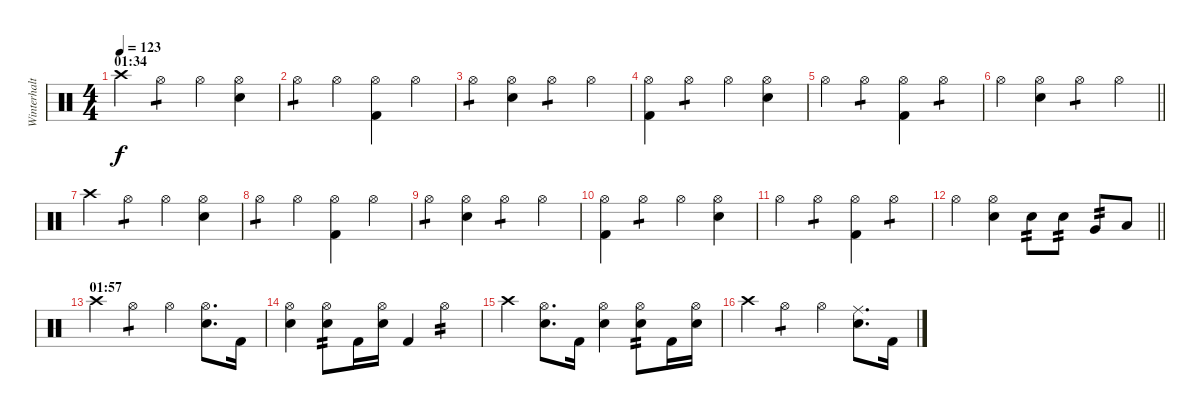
\track ("Winterhalten" "Winterhalt") {instrument percussion}
\staff {score}
\articulation defaults
\ts (4 4)
\section ("" "01:34")
\tempo 123
\clef neutral
\ks c "Crash high (hit)".4{dy f} "Hi-Hat (open)".4{tp 1} "Hi-Hat (open)".4
("Hi-Hat (open)" "Snare (hit) 2").4 |
"Hi-Hat (open)".4{tp 1} "Hi-Hat (open)".4 ("Hi-Hat (open)" "Kick (hit) 2").4 "Hi-Hat (open)".4 |
"Hi-Hat (open)".4{tp 1} ("Hi-Hat (open)" "Snare (hit) 2").4 "Hi-Hat (open)".4{tp 1} "Hi-Hat (open)".4 |
("Hi-Hat (open)" "Kick (hit) 2").4 "Hi-Hat (open)".4{tp 1} "Hi-Hat (open)".4 ("Hi-Hat (open)" "Snare (hit) 2").4 |
"Hi-Hat (open)".4 "Hi-Hat (open)".4{tp 1} ("Hi-Hat (open)" "Kick (hit) 2").4 "Hi-Hat (open)".4{tp 1} |
\barLineRight lightlight "Hi-Hat (open)".4
("Hi-Hat (open)" "Snare (hit) 2").4 "Hi-Hat (open)".4{tp 1} "Hi-Hat (open)".4 |
"Crash high (hit)".4 "Hi-Hat (open)".4{tp 1} "Hi-Hat (open)".4 ("Hi-Hat (open)" "Snare (hit) 2").4 |
"Hi-Hat (open)".4{tp 1} "Hi-Hat (open)".4 ("Hi-Hat (open)" "Kick (hit) 2").4 "Hi-Hat (open)".4 |
"Hi-Hat (open)".4{tp 1} ("Hi-Hat (open)" "Snare (hit) 2").4 "Hi-Hat (open)".4{tp 1} "Hi-Hat (open)".4 |
("Hi-Hat (open)" "Kick (hit) 2").4 "Hi-Hat (open)".4{tp 1} "Hi-Hat (open)".4 ("Hi-Hat (open)" "Snare (hit) 2").4 |
"Hi-Hat (open)".4 "Hi-Hat (open)".4{tp 1} ("Hi-Hat (open)" "Kick (hit) 2").4 "Hi-Hat (open)".4{tp 1} |
\barLineRight lightlight "Hi-Hat (open)".4
("Hi-Hat (open)" "Snare (hit) 2").4 "Snare (hit) 2".8{tp 2} "Snare (hit) 2".8{tp 2} "Very Low Tom (hit)".8{tp 2} "Low Tom (hit)".8 |
\section ("" "01:57")
"Crash high (hit)".4 "Hi-Hat (open)".4{tp 1} "Hi-Hat (open)".4 ("Hi-Hat (open)" "Snare (hit) 2").8{d} "Kick (hit) 2".16 |
("Hi-Hat (open)" "Snare (hit) 2").4 ("Hi-Hat (open)" "Snare (hit) 2").8{tp 2} "Kick (hit) 2".16 ("Hi-Hat (open)" "Snare (hit) 2").16 "Kick (hit) 2".4 "Hi-Hat (open)".4{tp 2} |
"Crash high (hit)".4 ("Hi-Hat (open)" "Snare (hit) 2").8{d} "Kick (hit) 2".16 ("Hi-Hat (open)" "Snare (hit) 2").4 ("Hi-Hat (open)" "Snare (hit) 2").8{tp 2} "Kick (hit) 2".16 ("Hi-Hat (open)" "Snare (hit) 2").16 |
"Crash high (hit)".4 "Hi-Hat (open)".4{tp 1} "Hi-Hat (open)".4 ("Ride (middle)" "Snare (hit) 2").8{d} "Kick (hit) 2".16
